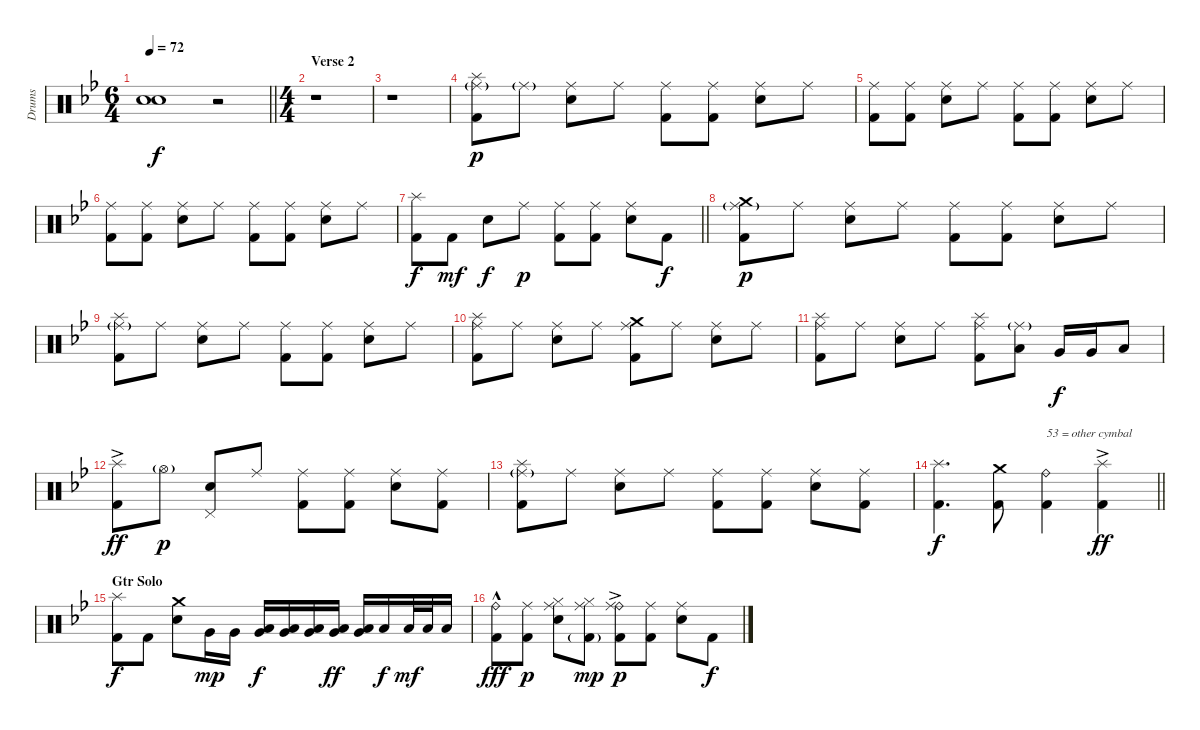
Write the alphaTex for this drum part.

\track ("Drums" "Drums") {instrument percussion}
\staff {score}
\articulation defaults
\ts (6 4)
\tempo 72
\clef neutral
\barLineRight lightlight
\ks bb
("Snare (hit)"{t} "Snare (hit)"{t}).1{dy f} r.2 |
\ts (4 4)
\section ("" "Verse 2")
r.1 |
r.1 |
("Splash (hit)" "Ride (middle)"{g} "Kick (hit) 2").8{dy p} "Ride (middle)"{g}.8 ("Ride (middle)" "Electric Snare (hit)").8 "Ride (middle)".8 ("Ride (middle)" "Kick (hit) 2").8 ("Ride (middle)" "Kick (hit) 2").8 ("Ride (middle)" "Electric Snare (hit)").8 "Ride (middle)".8 |
("Ride (middle)" "Kick (hit) 2").8 ("Ride (middle)" "Kick (hit) 2").8 ("Ride (middle)" "Electric Snare (hit)").8 "Ride (middle)".8 ("Ride (middle)" "Kick (hit) 2").8 ("Ride (middle)" "Kick (hit) 2").8 ("Ride (middle)" "Electric Snare (hit)").8 "Ride (middle)".8 |
("Ride (middle)" "Kick (hit) 2").8 ("Ride (middle)" "Kick (hit) 2").8 ("Ride (middle)" "Electric Snare (hit)").8 "Ride (middle)".8 ("Ride (middle)" "Kick (hit) 2").8 ("Ride (middle)" "Kick (hit) 2").8 ("Ride (middle)" "Electric Snare (hit)").8 "Ride (middle)".8 |
\barLineRight lightlight
("Splash (hit)" "Kick (hit) 2").8{dy f} "Kick (hit) 2".8{dy mf} "Electric Snare (hit)".8{dy f} "Ride (middle)".8{dy p} ("Ride (middle)" "Kick (hit) 2").8 ("Ride (middle)" "Kick (hit) 2").8 ("Ride (middle)" "Electric Snare (hit)").8 "Kick (hit) 2".8{dy f} |
("Crash medium (hit)" "Ride (middle)"{g} "Kick (hit) 2").8{dy p} "Ride (middle)".8 ("Ride (middle)" "Electric Snare (hit)").8 "Ride (middle)".8 ("Ride (middle)" "Kick (hit) 2").8 ("Ride (middle)" "Kick (hit) 2").8 ("Ride (middle)" "Electric Snare (hit)").8 "Ride (middle)".8 |
("Splash (hit)" "Ride (middle)"{g} "Kick (hit) 2").8 "Ride (middle)".8 ("Ride (middle)" "Electric Snare (hit)").8 "Ride (middle)".8 ("Ride (middle)" "Kick (hit) 2").8 ("Ride (middle)" "Kick (hit) 2").8 ("Ride (middle)" "Electric Snare (hit)").8 "Ride (middle)".8 |
("Splash (hit)" "Ride (middle)" "Kick (hit) 2").8 "Ride (middle)".8 ("Ride (middle)" "Electric Snare (hit)").8 "Ride (middle)".8 ("Crash medium (hit)" "Ride (middle)" "Kick (hit) 2").8 "Ride (middle)".8 ("Ride (middle)" "Electric Snare (hit)").8 "Ride (middle)".8 |
("Splash (hit)" "Ride (middle)" "Kick (hit) 2").8 "Ride (middle)".8 ("Ride (middle)" "Electric Snare (hit)").8 "Ride (middle)".8 ("Splash (hit)" "Ride (middle)" "Kick (hit) 2").8 ("Ride (middle)"{g} "Low Tom (hit)").8 "Very Low Tom (hit)".16{dy f} "Very Low Tom (hit)".16 "Low Floor Tom (hit)".8 |
("Splash (hit)"{ac} "Kick (hit) 2").8{dy ff} "Hi-Hat (open)"{g}.8{dy p} ("Pedal Hi-Hat (hit)" "Electric Snare (hit)").8 "Ride (middle)".8 ("Ride (middle)" "Kick (hit) 2").8 ("Ride (middle)" "Kick (hit) 2").8 ("Ride (middle)" "Electric Snare (hit)").8 ("Ride (middle)" "Kick (hit) 2").8 |
("Splash (hit)" "Ride (middle)"{g} "Kick (hit) 2").8 "Ride (middle)".8 ("Ride (middle)" "Electric Snare (hit)").8 "Ride (middle)".8 ("Ride (middle)" "Kick (hit) 2").8 ("Ride (middle)" "Kick (hit) 2").8 ("Ride (middle)" "Electric Snare (hit)").8 ("Ride (middle)" "Kick (hit) 2").8 |
\barLineRight lightlight
("Splash (hit)" "Kick (hit) 2").4{d dy f} ("Crash medium (hit)" "Kick (hit) 2").8 ("Ride (bell)" "Kick (hit) 2").4{txt "53 = other cymbal"} ("Splash (hit)"{ac} "Kick (hit) 2").4{dy ff} |
\section ("" "Gtr Solo")
("Splash (hit)" "Kick (hit) 2").8{dy f} "Kick (hit) 2".8 ("Crash medium (hit)" "Electric Snare (hit)").8 "Very Low Tom (hit)".16{dy mp} "Very Low Tom (hit)".16 ("Low Floor Tom (hit)" "Very Low Tom (hit)").16{dy f} ("Low Floor Tom (hit)" "Very Low Tom (hit)").16 ("Low Floor Tom (hit)" "Very Low Tom (hit)").16 ("Low Floor Tom (hit)" "Very Low Tom (hit)").16{dy ff} ("Low Floor Tom (hit)" "Very Low Tom (hit)").16 "Low Floor Tom (hit)".16{dy f} "Low Floor Tom (hit)".32{dy mf} "Low Floor Tom (hit)".32 "Low Floor Tom (hit)".16 |
("Ride (bell)"{hac} "Kick (hit) 2").8{dy fff} ("Ride (middle)" "Kick (hit) 2").8{dy p} ("Ride (middle)" "Electric Snare (hit)" "Hi-Hat (closed)").8 ("Ride (middle)" "Hi-Hat (closed)" "Kick (hit) 2"{g}).8{dy mp} ("Ride (bell)"{ac} "Ride (middle)" "Kick (hit) 2").8{dy p} ("Ride (middle)" "Kick (hit) 2").8 ("Ride (middle)" "Electric Snare (hit)").8 "Kick (hit) 2".8{dy f}
